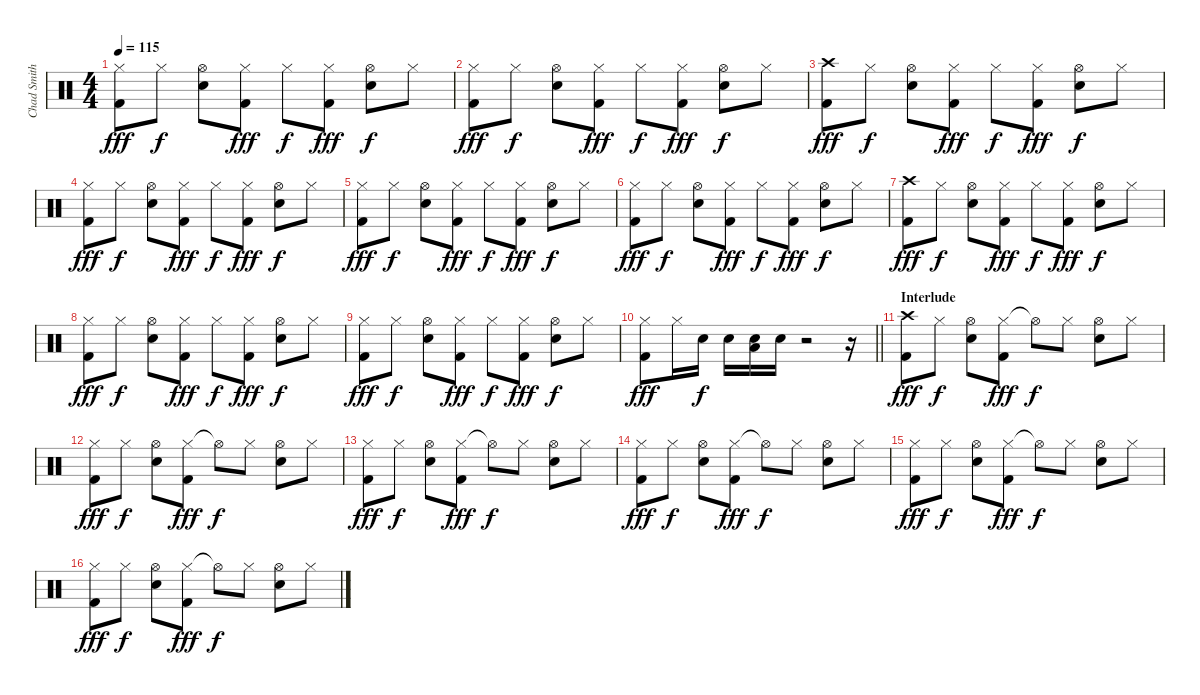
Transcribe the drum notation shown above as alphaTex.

\track ("Chad Smith - Drums" "Chad Smith") {instrument percussion}
\staff {score}
\articulation defaults
\ts (4 4)
\tempo 115
\clef neutral
\ks c
("Hi-Hat (closed)" "Kick (hit) 2").8{dy fff} "Hi-Hat (closed)".8{dy f} ("Hi-Hat (open)" "Electric Snare (hit)").8 ("Hi-Hat (closed)" "Kick (hit) 2").8{dy fff} "Hi-Hat (closed)".8{dy f} ("Hi-Hat (closed)" "Kick (hit) 2").8{dy fff} ("Hi-Hat (open)" "Electric Snare (hit)").8{dy f} "Hi-Hat (closed)".8 |
("Hi-Hat (closed)" "Kick (hit) 2").8{dy fff} "Hi-Hat (closed)".8{dy f} ("Hi-Hat (open)" "Electric Snare (hit)").8 ("Hi-Hat (closed)" "Kick (hit) 2").8{dy fff} "Hi-Hat (closed)".8{dy f} ("Hi-Hat (closed)" "Kick (hit) 2").8{dy fff} ("Hi-Hat (open)" "Electric Snare (hit)").8{dy f} "Hi-Hat (closed)".8 |
("Crash high (hit)" "Kick (hit) 2").8{dy fff} "Hi-Hat (closed)".8{dy f} ("Hi-Hat (open)" "Electric Snare (hit)").8 ("Hi-Hat (closed)" "Kick (hit) 2").8{dy fff} "Hi-Hat (closed)".8{dy f} ("Hi-Hat (closed)" "Kick (hit) 2").8{dy fff} ("Hi-Hat (open)" "Electric Snare (hit)").8{dy f} "Hi-Hat (closed)".8 |
("Hi-Hat (closed)" "Kick (hit) 2").8{dy fff} "Hi-Hat (closed)".8{dy f} ("Hi-Hat (open)" "Electric Snare (hit)").8 ("Hi-Hat (closed)" "Kick (hit) 2").8{dy fff} "Hi-Hat (closed)".8{dy f} ("Hi-Hat (closed)" "Kick (hit) 2").8{dy fff} ("Hi-Hat (open)" "Electric Snare (hit)").8{dy f} "Hi-Hat (closed)".8 |
("Hi-Hat (closed)" "Kick (hit) 2").8{dy fff} "Hi-Hat (closed)".8{dy f} ("Hi-Hat (open)" "Electric Snare (hit)").8 ("Hi-Hat (closed)" "Kick (hit) 2").8{dy fff} "Hi-Hat (closed)".8{dy f} ("Hi-Hat (closed)" "Kick (hit) 2").8{dy fff} ("Hi-Hat (open)" "Electric Snare (hit)").8{dy f} "Hi-Hat (closed)".8 |
("Hi-Hat (closed)" "Kick (hit) 2").8{dy fff} "Hi-Hat (closed)".8{dy f} ("Hi-Hat (open)" "Electric Snare (hit)").8 ("Hi-Hat (closed)" "Kick (hit) 2").8{dy fff} "Hi-Hat (closed)".8{dy f} ("Hi-Hat (closed)" "Kick (hit) 2").8{dy fff} ("Hi-Hat (open)" "Electric Snare (hit)").8{dy f} "Hi-Hat (closed)".8 |
("Crash high (hit)" "Kick (hit) 2").8{dy fff} "Hi-Hat (closed)".8{dy f} ("Hi-Hat (open)" "Electric Snare (hit)").8 ("Hi-Hat (closed)" "Kick (hit) 2").8{dy fff} "Hi-Hat (closed)".8{dy f} ("Hi-Hat (closed)" "Kick (hit) 2").8{dy fff} ("Hi-Hat (open)" "Electric Snare (hit)").8{dy f} "Hi-Hat (closed)".8 |
("Hi-Hat (closed)" "Kick (hit) 2").8{dy fff} "Hi-Hat (closed)".8{dy f} ("Hi-Hat (open)" "Electric Snare (hit)").8 ("Hi-Hat (closed)" "Kick (hit) 2").8{dy fff} "Hi-Hat (closed)".8{dy f} ("Hi-Hat (closed)" "Kick (hit) 2").8{dy fff} ("Hi-Hat (open)" "Electric Snare (hit)").8{dy f} "Hi-Hat (closed)".8 |
("Hi-Hat (closed)" "Kick (hit) 2").8{dy fff} "Hi-Hat (closed)".8{dy f} ("Hi-Hat (open)" "Electric Snare (hit)").8 ("Hi-Hat (closed)" "Kick (hit) 2").8{dy fff} "Hi-Hat (closed)".8{dy f} ("Hi-Hat (closed)" "Kick (hit) 2").8{dy fff} ("Hi-Hat (open)" "Electric Snare (hit)").8{dy f} "Hi-Hat (closed)".8 |
\barLineRight lightlight
("Hi-Hat (closed)" "Kick (hit) 2").8{dy fff} "Hi-Hat (closed)".16 "Electric Snare (hit)".16{dy f} "Electric Snare (hit)".16 ("Electric Snare (hit)" "Low Floor Tom (hit)").16 "Electric Snare (hit)".16 r.2 r.16 |
\section ("" "Interlude")
("Crash high (hit)" "Kick (hit) 2").8{dy fff balance 8} "Hi-Hat (closed)".8{dy f} ("Hi-Hat (open)" "Electric Snare (hit)").8 ("Hi-Hat (closed)" "Kick (hit) 2").8{dy fff} "Hi-Hat (open)"{t}.8{dy f} "Hi-Hat (closed)".8 ("Hi-Hat (open)" "Electric Snare (hit)").8 "Hi-Hat (closed)".8 |
("Hi-Hat (closed)" "Kick (hit) 2").8{dy fff} "Hi-Hat (closed)".8{dy f} ("Hi-Hat (open)" "Electric Snare (hit)").8 ("Hi-Hat (closed)" "Kick (hit) 2").8{dy fff} "Hi-Hat (open)"{t}.8{dy f} "Hi-Hat (closed)".8 ("Hi-Hat (open)" "Electric Snare (hit)").8 "Hi-Hat (closed)".8 |
("Hi-Hat (closed)" "Kick (hit) 2").8{dy fff} "Hi-Hat (closed)".8{dy f} ("Hi-Hat (open)" "Electric Snare (hit)").8 ("Hi-Hat (closed)" "Kick (hit) 2").8{dy fff} "Hi-Hat (open)"{t}.8{dy f} "Hi-Hat (closed)".8 ("Hi-Hat (open)" "Electric Snare (hit)").8 "Hi-Hat (closed)".8 |
("Hi-Hat (closed)" "Kick (hit) 2").8{dy fff} "Hi-Hat (closed)".8{dy f} ("Hi-Hat (open)" "Electric Snare (hit)").8 ("Hi-Hat (closed)" "Kick (hit) 2").8{dy fff} "Hi-Hat (open)"{t}.8{dy f} "Hi-Hat (closed)".8 ("Hi-Hat (open)" "Electric Snare (hit)").8 "Hi-Hat (closed)".8 |
("Hi-Hat (closed)" "Kick (hit) 2").8{dy fff} "Hi-Hat (closed)".8{dy f} ("Hi-Hat (open)" "Electric Snare (hit)").8 ("Hi-Hat (closed)" "Kick (hit) 2").8{dy fff} "Hi-Hat (open)"{t}.8{dy f} "Hi-Hat (closed)".8 ("Hi-Hat (open)" "Electric Snare (hit)").8 "Hi-Hat (closed)".8 |
("Hi-Hat (closed)" "Kick (hit) 2").8{dy fff} "Hi-Hat (closed)".8{dy f} ("Hi-Hat (open)" "Electric Snare (hit)").8 ("Hi-Hat (closed)" "Kick (hit) 2").8{dy fff} "Hi-Hat (open)"{t}.8{dy f} "Hi-Hat (closed)".8 ("Hi-Hat (open)" "Electric Snare (hit)").8 "Hi-Hat (closed)".8
